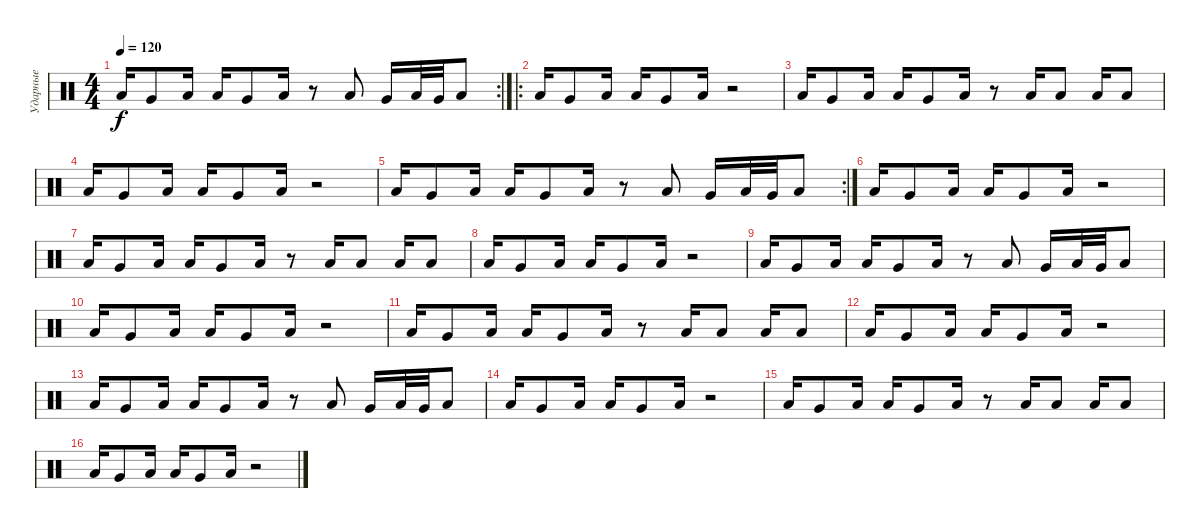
\track ("Ударные" "Ударные") {instrument percussion}
\staff {score}
\articulation defaults
\rc 2
\ts (4 4)
\tempo 120
\clef neutral
\ks c "Low Floor Tom (hit)".16{dy f} "Very Low Tom (hit)".8 "Low Tom (hit)".16 "Low Floor Tom (hit)".16 "Very Low Tom (hit)".8 "Low Tom (hit)".16
r.8 "Low Tom (hit)".8 "Very Low Tom (hit)".16 "Low Tom (hit)".32 "Very Low Tom (hit)".32 "Low Tom (hit)".8 |
\ro "Low Floor Tom (hit)".16 "Very Low Tom (hit)".8 "Low Tom (hit)".16 "Low Floor Tom (hit)".16 "Very Low Tom (hit)".8 "Low Tom (hit)".16
r.2 |
"Low Floor Tom (hit)".16 "Very Low Tom (hit)".8 "Low Tom (hit)".16 "Low Floor Tom (hit)".16 "Very Low Tom (hit)".8 "Low Tom (hit)".16 r.8 "Low Tom (hit)".16 "Low Tom (hit)".8 "Low Tom (hit)".16 "Low Tom (hit)".8 |
"Low Floor Tom (hit)".16 "Very Low Tom (hit)".8 "Low Tom (hit)".16 "Low Floor Tom (hit)".16 "Very Low Tom (hit)".8 "Low Tom (hit)".16 r.2 |
\rc 2 "Low Floor Tom (hit)".16 "Very Low Tom (hit)".8 "Low Tom (hit)".16 "Low Floor Tom (hit)".16 "Very Low Tom (hit)".8 "Low Tom (hit)".16
r.8 "Low Tom (hit)".8 "Very Low Tom (hit)".16 "Low Tom (hit)".32 "Very Low Tom (hit)".32 "Low Tom (hit)".8 |
"Low Floor Tom (hit)".16 "Very Low Tom (hit)".8 "Low Tom (hit)".16 "Low Floor Tom (hit)".16 "Very Low Tom (hit)".8 "Low Tom (hit)".16 r.2 |
"Low Floor Tom (hit)".16 "Very Low Tom (hit)".8 "Low Tom (hit)".16 "Low Floor Tom (hit)".16 "Very Low Tom (hit)".8 "Low Tom (hit)".16 r.8 "Low Tom (hit)".16 "Low Tom (hit)".8 "Low Tom (hit)".16 "Low Tom (hit)".8 |
"Low Floor Tom (hit)".16 "Very Low Tom (hit)".8 "Low Tom (hit)".16 "Low Floor Tom (hit)".16 "Very Low Tom (hit)".8 "Low Tom (hit)".16 r.2 |
"Low Floor Tom (hit)".16 "Very Low Tom (hit)".8 "Low Tom (hit)".16 "Low Floor Tom (hit)".16 "Very Low Tom (hit)".8 "Low Tom (hit)".16 r.8 "Low Tom (hit)".8 "Very Low Tom (hit)".16 "Low Tom (hit)".32 "Very Low Tom (hit)".32 "Low Tom (hit)".8 |
"Low Floor Tom (hit)".16 "Very Low Tom (hit)".8 "Low Tom (hit)".16 "Low Floor Tom (hit)".16 "Very Low Tom (hit)".8 "Low Tom (hit)".16 r.2 |
"Low Floor Tom (hit)".16 "Very Low Tom (hit)".8 "Low Tom (hit)".16 "Low Floor Tom (hit)".16 "Very Low Tom (hit)".8 "Low Tom (hit)".16 r.8 "Low Tom (hit)".16 "Low Tom (hit)".8 "Low Tom (hit)".16 "Low Tom (hit)".8 |
"Low Floor Tom (hit)".16 "Very Low Tom (hit)".8 "Low Tom (hit)".16 "Low Floor Tom (hit)".16 "Very Low Tom (hit)".8 "Low Tom (hit)".16 r.2 |
"Low Floor Tom (hit)".16 "Very Low Tom (hit)".8 "Low Tom (hit)".16 "Low Floor Tom (hit)".16 "Very Low Tom (hit)".8 "Low Tom (hit)".16 r.8 "Low Tom (hit)".8 "Very Low Tom (hit)".16 "Low Tom (hit)".32 "Very Low Tom (hit)".32 "Low Tom (hit)".8 |
"Low Floor Tom (hit)".16 "Very Low Tom (hit)".8 "Low Tom (hit)".16 "Low Floor Tom (hit)".16 "Very Low Tom (hit)".8 "Low Tom (hit)".16 r.2 |
"Low Floor Tom (hit)".16 "Very Low Tom (hit)".8 "Low Tom (hit)".16 "Low Floor Tom (hit)".16 "Very Low Tom (hit)".8 "Low Tom (hit)".16 r.8 "Low Tom (hit)".16 "Low Tom (hit)".8 "Low Tom (hit)".16 "Low Tom (hit)".8 |
"Low Floor Tom (hit)".16 "Very Low Tom (hit)".8 "Low Tom (hit)".16 "Low Floor Tom (hit)".16 "Very Low Tom (hit)".8 "Low Tom (hit)".16 r.2
